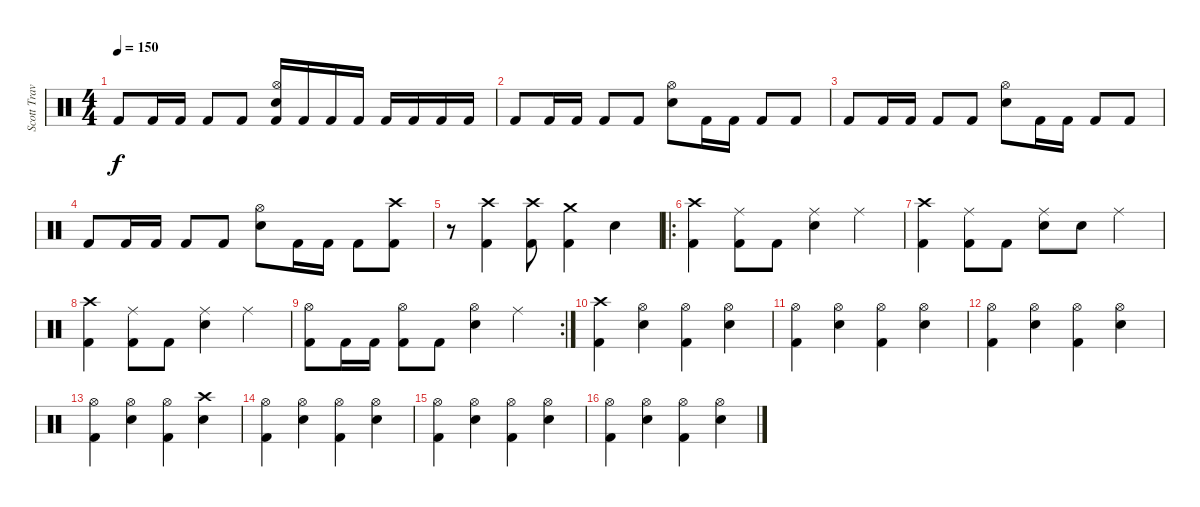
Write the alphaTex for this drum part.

\track ("Scott Travis" "Scott Trav") {instrument percussion}
\staff {score}
\articulation defaults
\ts (4 4)
\tempo 150
\clef neutral
\ks c "Kick (hit) 2".8{dy f} "Kick (hit) 2".16 "Kick (hit) 2".16 "Kick (hit) 2".8 "Kick (hit) 2".8
("Hi-Hat (open)" "Snare (hit) 2" "Kick (hit) 2").16 "Kick (hit) 2".16 "Kick (hit) 2".16 "Kick (hit) 2".16 "Kick (hit) 2".16 "Kick (hit) 2".16 "Kick (hit) 2".16 "Kick (hit) 2".16 |
"Kick (hit) 2".8 "Kick (hit) 2".16 "Kick (hit) 2".16 "Kick (hit) 2".8 "Kick (hit) 2".8 ("Hi-Hat (open)" "Snare (hit) 2").8 "Kick (hit) 2".16 "Kick (hit) 2".16 "Kick (hit) 2".8 "Kick (hit) 2".8 |
"Kick (hit) 2".8 "Kick (hit) 2".16 "Kick (hit) 2".16 "Kick (hit) 2".8 "Kick (hit) 2".8 ("Hi-Hat (open)" "Snare (hit) 2").8 "Kick (hit) 2".16 "Kick (hit) 2".16 "Kick (hit) 2".8 "Kick (hit) 2".8 |
"Kick (hit) 2".8 "Kick (hit) 2".16 "Kick (hit) 2".16 "Kick (hit) 2".8 "Kick (hit) 2".8 ("Hi-Hat (open)" "Snare (hit) 2").8 "Kick (hit) 2".16 "Kick (hit) 2".16 "Kick (hit) 2".8 ("Crash high (hit)" "Kick (hit) 2").8 |
r.8 ("Crash high (hit)" "Kick (hit) 2").4 ("Crash high (hit)" "Kick (hit) 2").8 ("Crash medium (hit)" "Kick (hit) 2").4 "Snare (hit) 2".4 |
\ro
("Crash high (hit)" "Kick (hit) 2").4 ("Ride (middle)" "Kick (hit) 2").8 "Kick (hit) 2".8 ("Ride (middle)" "Snare (hit) 2").4 "Ride (middle)".4 |
("Crash high (hit)" "Kick (hit) 2").4 ("Ride (middle)" "Kick (hit) 2").8 "Kick (hit) 2".8 ("Ride (middle)" "Snare (hit) 2").8 "Snare (hit) 2".8 "Ride (middle)".4 |
("Crash high (hit)" "Kick (hit) 2").4 ("Ride (middle)" "Kick (hit) 2").8 "Kick (hit) 2".8 ("Ride (middle)" "Snare (hit) 2").4 "Ride (middle)".4 |
\rc 2
("Hi-Hat (open)" "Kick (hit) 2").8 "Kick (hit) 2".16 "Kick (hit) 2".16 ("Hi-Hat (open)" "Kick (hit) 2").8 "Kick (hit) 2".8 ("Hi-Hat (open)" "Snare (hit) 2").4 "Ride (middle)".4 |
("Crash high (hit)" "Kick (hit) 2").4 ("Hi-Hat (open)" "Snare (hit) 2").4 ("Hi-Hat (open)" "Kick (hit) 2").4 ("Hi-Hat (open)" "Snare (hit) 2").4 |
("Hi-Hat (open)" "Kick (hit) 2").4 ("Hi-Hat (open)" "Snare (hit) 2").4 ("Hi-Hat (open)" "Kick (hit) 2").4 ("Hi-Hat (open)" "Snare (hit) 2").4 |
("Hi-Hat (open)" "Kick (hit) 2").4 ("Hi-Hat (open)" "Snare (hit) 2").4 ("Hi-Hat (open)" "Kick (hit) 2").4 ("Hi-Hat (open)" "Snare (hit) 2").4 |
("Hi-Hat (open)" "Kick (hit) 2").4 ("Hi-Hat (open)" "Snare (hit) 2").4 ("Hi-Hat (open)" "Kick (hit) 2").4 ("Crash high (hit)" "Snare (hit) 2").4 |
("Hi-Hat (open)" "Kick (hit) 2").4 ("Hi-Hat (open)" "Snare (hit) 2").4 ("Hi-Hat (open)" "Kick (hit) 2").4 ("Hi-Hat (open)" "Snare (hit) 2").4 |
("Hi-Hat (open)" "Kick (hit) 2").4 ("Hi-Hat (open)" "Snare (hit) 2").4 ("Hi-Hat (open)" "Kick (hit) 2").4 ("Hi-Hat (open)" "Snare (hit) 2").4 |
("Hi-Hat (open)" "Kick (hit) 2").4 ("Hi-Hat (open)" "Snare (hit) 2").4 ("Hi-Hat (open)" "Kick (hit) 2").4 ("Hi-Hat (open)" "Snare (hit) 2").4
